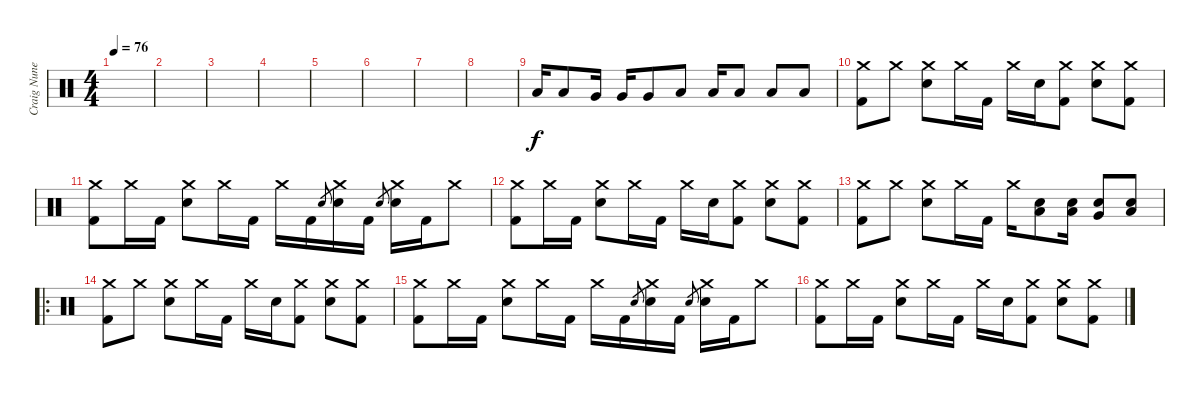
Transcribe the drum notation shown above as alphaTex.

\track ("Craig Nunenmacher" "Craig Nune") {instrument percussion}
\staff {score}
\articulation defaults
\ts (4 4)
\tempo 76
\clef neutral
\ks c
|
|
|
|
|
|
|
|
"Low Tom (hit)".16 "Low Tom (hit)".8 "Very Low Tom (hit)".16 "Very Low Tom (hit)".16 "Very Low Tom (hit)".8 "Low Floor Tom (hit)".8 "Low Floor Tom (hit)".16 "Low Floor Tom (hit)".8 "Low Floor Tom (hit)".8 "Low Floor Tom (hit)".8 |
("Crash medium (hit)" "Kick (hit) 2").8 "Crash medium (hit)".8 ("Crash medium (hit)" "Snare (hit) 2").8 "Crash medium (hit)".16 "Kick (hit) 2".16 "Crash medium (hit)".16 "Snare (hit) 2".16 ("Crash medium (hit)" "Kick (hit) 2").8 ("Crash medium (hit)" "Snare (hit) 2").8 ("Crash medium (hit)" "Kick (hit) 2").8 |
("Crash medium (hit)" "Kick (hit) 2").8 "Crash medium (hit)".16 "Kick (hit) 2".16 ("Crash medium (hit)" "Snare (hit) 2").8 "Crash medium (hit)".16 "Kick (hit) 2".16 "Crash medium (hit)".16 "Kick (hit) 2".16 "Snare (hit) 2".8{gr} ("Crash medium (hit)" "Snare (hit) 2").16 "Kick (hit) 2".16 "Snare (hit) 2".8{gr} ("Crash medium (hit)" "Snare (hit) 2").16 "Kick (hit) 2".16 "Crash medium (hit)".8 |
("Crash medium (hit)" "Kick (hit) 2").8 "Crash medium (hit)".16 "Kick (hit) 2".16 ("Crash medium (hit)" "Snare (hit) 2").8 "Crash medium (hit)".16 "Kick (hit) 2".16 "Crash medium (hit)".16 "Snare (hit) 2".16 ("Crash medium (hit)" "Kick (hit) 2").8 ("Crash medium (hit)" "Snare (hit) 2").8 ("Crash medium (hit)" "Kick (hit) 2").8 |
("Crash medium (hit)" "Kick (hit) 2").8 "Crash medium (hit)".8 ("Crash medium (hit)" "Snare (hit) 2").8 "Crash medium (hit)".16 "Kick (hit) 2".16 "Crash medium (hit)".16 ("Snare (hit) 2" "Low Tom (hit)").8 ("Snare (hit) 2" "Low Tom (hit)").16 ("Snare (hit) 2" "Very Low Tom (hit)").8 ("Snare (hit) 2" "Low Floor Tom (hit)").8 |
\ro
("Crash medium (hit)" "Kick (hit) 2").8 "Crash medium (hit)".8 ("Crash medium (hit)" "Snare (hit) 2").8 "Crash medium (hit)".16 "Kick (hit) 2".16 "Crash medium (hit)".16 "Snare (hit) 2".16 ("Crash medium (hit)" "Kick (hit) 2").8 ("Crash medium (hit)" "Snare (hit) 2").8 ("Crash medium (hit)" "Kick (hit) 2").8 |
("Crash medium (hit)" "Kick (hit) 2").8 "Crash medium (hit)".16 "Kick (hit) 2".16 ("Crash medium (hit)" "Snare (hit) 2").8 "Crash medium (hit)".16 "Kick (hit) 2".16 "Crash medium (hit)".16 "Kick (hit) 2".16 "Snare (hit) 2".8{gr} ("Crash medium (hit)" "Snare (hit) 2").16 "Kick (hit) 2".16 "Snare (hit) 2".8{gr} ("Crash medium (hit)" "Snare (hit) 2").16 "Kick (hit) 2".16 "Crash medium (hit)".8 |
("Crash medium (hit)" "Kick (hit) 2").8 "Crash medium (hit)".16 "Kick (hit) 2".16 ("Crash medium (hit)" "Snare (hit) 2").8 "Crash medium (hit)".16 "Kick (hit) 2".16 "Crash medium (hit)".16 "Snare (hit) 2".16 ("Crash medium (hit)" "Kick (hit) 2").8 ("Crash medium (hit)" "Snare (hit) 2").8 ("Crash medium (hit)" "Kick (hit) 2").8
